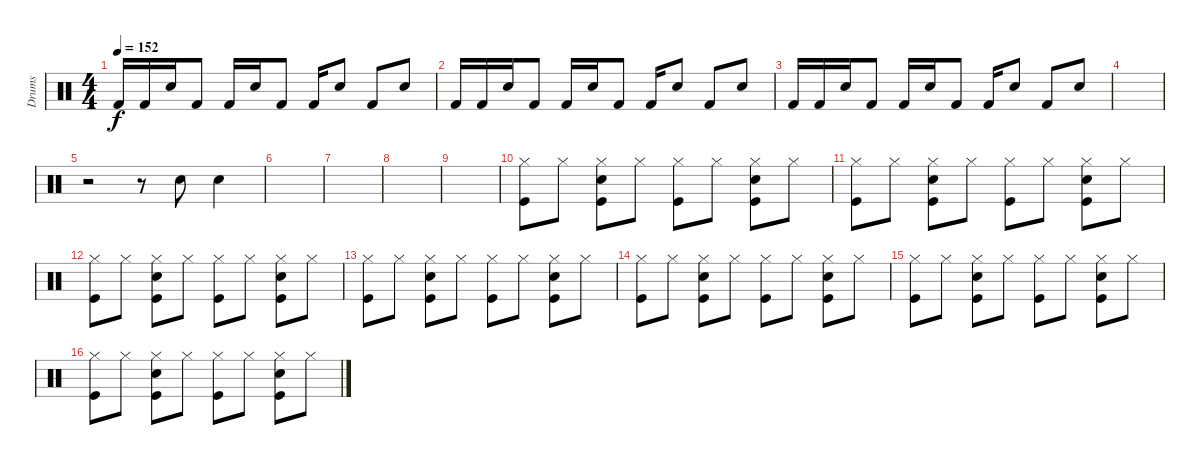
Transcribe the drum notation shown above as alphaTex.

\track ("Drums" "Drums") {instrument percussion}
\staff {score}
\articulation defaults
\ts (4 4)
\tempo 152
\clef neutral
\ks c "Kick (hit) 2".16{dy f} "Kick (hit) 2".16 "Electric Snare (hit)".16 "Kick (hit) 2".8 "Kick (hit) 2".16 "Electric Snare (hit)".16 "Kick (hit) 2".8 "Kick (hit) 2".16 "Electric Snare (hit)".8 "Kick (hit) 2".8 "Electric Snare (hit)".8
|
"Kick (hit) 2".16 "Kick (hit) 2".16 "Electric Snare (hit)".16 "Kick (hit) 2".8 "Kick (hit) 2".16 "Electric Snare (hit)".16 "Kick (hit) 2".8 "Kick (hit) 2".16 "Electric Snare (hit)".8 "Kick (hit) 2".8 "Electric Snare (hit)".8 |
"Kick (hit) 2".16 "Kick (hit) 2".16 "Electric Snare (hit)".16 "Kick (hit) 2".8 "Kick (hit) 2".16 "Electric Snare (hit)".16 "Kick (hit) 2".8 "Kick (hit) 2".16 "Electric Snare (hit)".8 "Kick (hit) 2".8 "Electric Snare (hit)".8 |
|
r.2 r.8 "Snare (hit) 2".8 "Snare (hit) 2".4 |
|
|
|
|
("Hi-Hat (closed)" "Kick (hit)").8 "Hi-Hat (closed)".8 ("Hi-Hat (closed)" "Electric Snare (hit)" "Kick (hit)").8 "Hi-Hat (closed)".8 ("Hi-Hat (closed)" "Kick (hit)").8 "Hi-Hat (closed)".8 ("Hi-Hat (closed)" "Electric Snare (hit)" "Kick (hit)").8 "Hi-Hat (closed)".8 |
("Hi-Hat (closed)" "Kick (hit)").8 "Hi-Hat (closed)".8 ("Hi-Hat (closed)" "Electric Snare (hit)" "Kick (hit)").8 "Hi-Hat (closed)".8 ("Hi-Hat (closed)" "Kick (hit)").8 "Hi-Hat (closed)".8 ("Hi-Hat (closed)" "Electric Snare (hit)" "Kick (hit)").8 "Hi-Hat (closed)".8 |
("Hi-Hat (closed)" "Kick (hit)").8 "Hi-Hat (closed)".8 ("Hi-Hat (closed)" "Electric Snare (hit)" "Kick (hit)").8 "Hi-Hat (closed)".8 ("Hi-Hat (closed)" "Kick (hit)").8 "Hi-Hat (closed)".8 ("Hi-Hat (closed)" "Electric Snare (hit)" "Kick (hit)").8 "Hi-Hat (closed)".8 |
("Hi-Hat (closed)" "Kick (hit)").8 "Hi-Hat (closed)".8 ("Hi-Hat (closed)" "Electric Snare (hit)" "Kick (hit)").8 "Hi-Hat (closed)".8 ("Hi-Hat (closed)" "Kick (hit)").8 "Hi-Hat (closed)".8 ("Hi-Hat (closed)" "Electric Snare (hit)" "Kick (hit)").8 "Hi-Hat (closed)".8 |
("Hi-Hat (closed)" "Kick (hit)").8 "Hi-Hat (closed)".8 ("Hi-Hat (closed)" "Electric Snare (hit)" "Kick (hit)").8 "Hi-Hat (closed)".8 ("Hi-Hat (closed)" "Kick (hit)").8 "Hi-Hat (closed)".8 ("Hi-Hat (closed)" "Electric Snare (hit)" "Kick (hit)").8 "Hi-Hat (closed)".8 |
("Hi-Hat (closed)" "Kick (hit)").8 "Hi-Hat (closed)".8 ("Hi-Hat (closed)" "Electric Snare (hit)" "Kick (hit)").8 "Hi-Hat (closed)".8 ("Hi-Hat (closed)" "Kick (hit)").8 "Hi-Hat (closed)".8 ("Hi-Hat (closed)" "Electric Snare (hit)" "Kick (hit)").8 "Hi-Hat (closed)".8 |
("Hi-Hat (closed)" "Kick (hit)").8 "Hi-Hat (closed)".8 ("Hi-Hat (closed)" "Electric Snare (hit)" "Kick (hit)").8 "Hi-Hat (closed)".8 ("Hi-Hat (closed)" "Kick (hit)").8 "Hi-Hat (closed)".8 ("Hi-Hat (closed)" "Electric Snare (hit)" "Kick (hit)").8 "Hi-Hat (closed)".8
